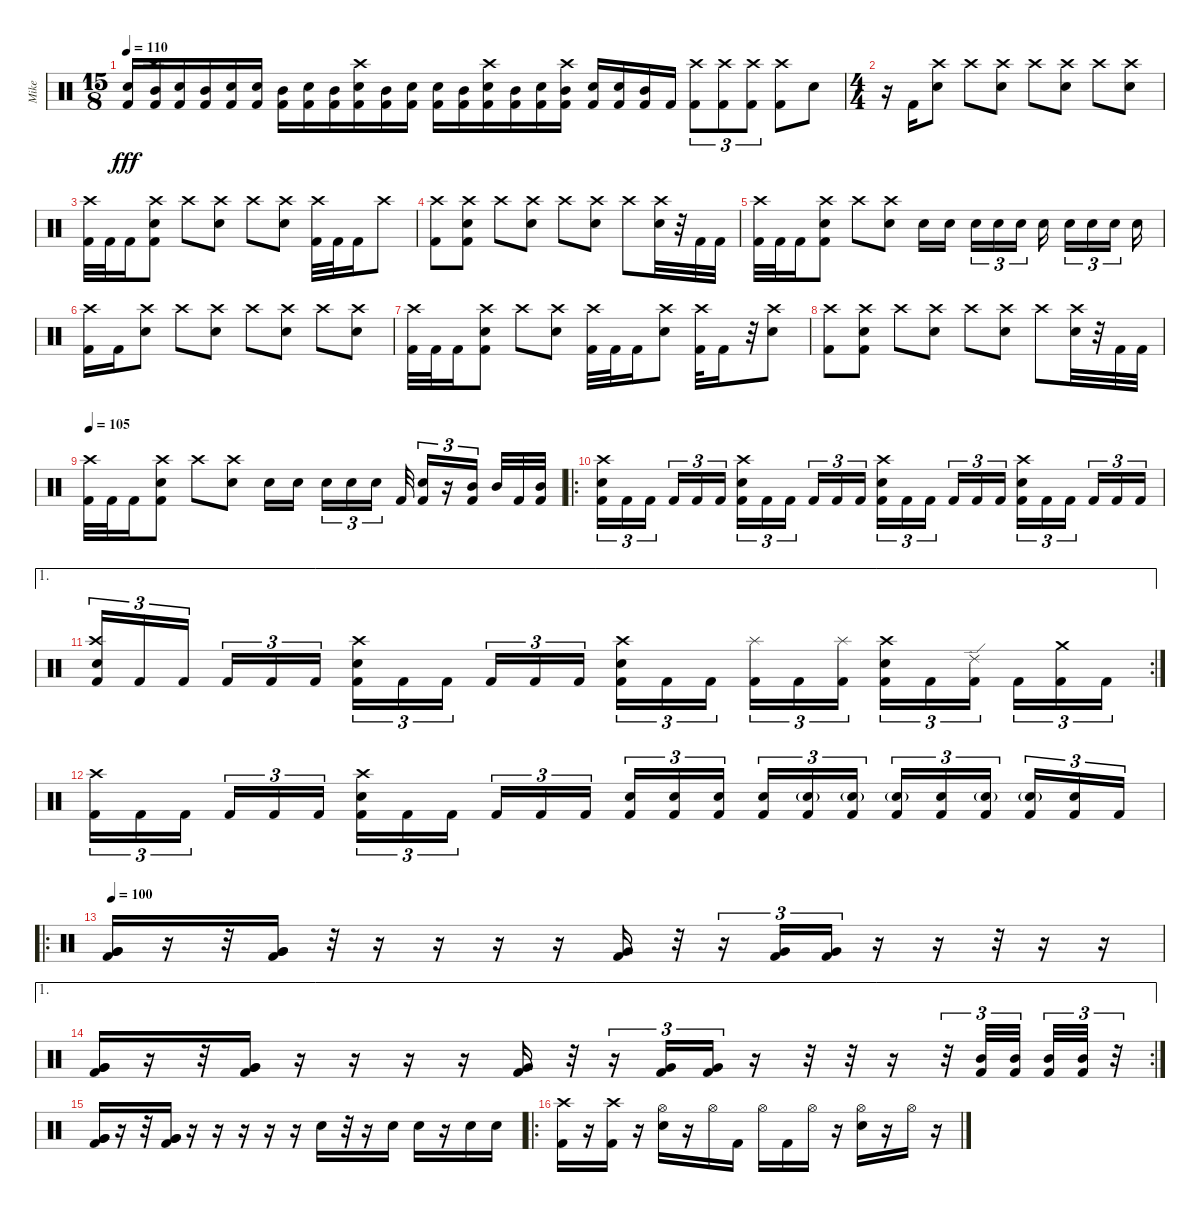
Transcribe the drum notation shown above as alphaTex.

\track ("Mike" "Mike") {instrument percussion}
\staff {score}
\articulation defaults
\ts (15 8)
\tempo 110
\clef neutral
\ks c
("Electric Snare (hit)" "Kick (hit) 2").16{dy fff} ("Crash high (hit)" "Mid Tom (hit)" "Kick (hit) 2").16 ("Electric Snare (hit)" "Kick (hit) 2").16 ("Mid Tom (hit)" "Kick (hit) 2").16 ("Electric Snare (hit)" "Kick (hit) 2").16 ("Electric Snare (hit)" "Kick (hit) 2").16 ("Mid Tom (hit)" "Kick (hit) 2").16 ("Electric Snare (hit)" "Kick (hit) 2").16 ("Mid Tom (hit)" "Kick (hit) 2").16 ("Crash high (hit)" "Electric Snare (hit)" "Kick (hit) 2").16 ("Mid Tom (hit)" "Kick (hit) 2").16 ("Electric Snare (hit)" "Kick (hit) 2").16 ("Electric Snare (hit)" "Kick (hit) 2").16 ("Mid Tom (hit)" "Kick (hit) 2").16 ("Crash high (hit)" "Electric Snare (hit)" "Kick (hit) 2").16 ("Mid Tom (hit)" "Kick (hit) 2").16 ("Electric Snare (hit)" "Kick (hit) 2").16 ("Crash high (hit)" "Mid Tom (hit)" "Kick (hit) 2").16 ("Electric Snare (hit)" "Kick (hit) 2").16 ("Electric Snare (hit)" "Kick (hit) 2").16 ("Mid Tom (hit)" "Kick (hit) 2").16 "Kick (hit) 2".16 ("Crash high (hit)" "Kick (hit) 2").8{tu (3 2)} ("Crash high (hit)" "Kick (hit) 2").8{tu (3 2)} ("Crash high (hit)" "Kick (hit) 2").8{tu (3 2)} ("Crash high (hit)" "Kick (hit) 2").8 "Electric Snare (hit)".8 |
\ts (4 4)
r.16 "Kick (hit) 2".16 ("Crash high (hit)" "Electric Snare (hit)").8 "Crash high (hit)".8 ("Crash high (hit)" "Electric Snare (hit)").8 "Crash high (hit)".8 ("Crash high (hit)" "Electric Snare (hit)").8 "Crash high (hit)".8 ("Crash high (hit)" "Electric Snare (hit)").8 |
("Crash high (hit)" "Kick (hit) 2").32 "Kick (hit) 2".32 "Kick (hit) 2".16 ("Crash high (hit)" "Electric Snare (hit)" "Kick (hit) 2").8 "Crash high (hit)".8 ("Crash high (hit)" "Electric Snare (hit)").8 "Crash high (hit)".8 ("Crash high (hit)" "Electric Snare (hit)").8 ("Crash high (hit)" "Kick (hit) 2").32 "Kick (hit) 2".32 "Kick (hit) 2".16 "Crash high (hit)".8 |
("Crash high (hit)" "Kick (hit) 2").8 ("Crash high (hit)" "Electric Snare (hit)" "Kick (hit) 2").8 "Crash high (hit)".8 ("Crash high (hit)" "Electric Snare (hit)").8 "Crash high (hit)".8 ("Crash high (hit)" "Electric Snare (hit)").8 "Crash high (hit)".8 ("Crash high (hit)" "Electric Snare (hit)").32 r.32 "Kick (hit) 2".32 "Kick (hit) 2".32 |
("Crash high (hit)" "Kick (hit) 2").32 "Kick (hit) 2".32 "Kick (hit) 2".16 ("Crash high (hit)" "Electric Snare (hit)" "Kick (hit) 2").8 "Crash high (hit)".8 ("Crash high (hit)" "Electric Snare (hit)").8 "Electric Snare (hit)".16 "Electric Snare (hit)".16{beam splitsecondary} "Electric Snare (hit)".16{tu (3 2)} "Electric Snare (hit)".16{tu (3 2)} "Electric Snare (hit)".16{tu (3 2)} "Electric Snare (hit)".16{beam splitsecondary} "Electric Snare (hit)".16{tu (3 2)} "Electric Snare (hit)".16{tu (3 2)} "Electric Snare (hit)".16{tu (3 2) beam splitsecondary} "Electric Snare (hit)".16 |
("Crash high (hit)" "Kick (hit) 2").16 "Kick (hit) 2".16 ("Crash high (hit)" "Electric Snare (hit)").8 "Crash high (hit)".8 ("Crash high (hit)" "Electric Snare (hit)").8 "Crash high (hit)".8 ("Crash high (hit)" "Electric Snare (hit)").8 "Crash high (hit)".8 ("Crash high (hit)" "Electric Snare (hit)").8 |
("Crash high (hit)" "Kick (hit) 2").32 "Kick (hit) 2".32 "Kick (hit) 2".16 ("Crash high (hit)" "Electric Snare (hit)" "Kick (hit) 2").8 "Crash high (hit)".8 ("Crash high (hit)" "Electric Snare (hit)").8 ("Crash high (hit)" "Kick (hit) 2").32 "Kick (hit) 2".32 "Kick (hit) 2".16 ("Crash high (hit)" "Electric Snare (hit)").8 ("Crash high (hit)" "Kick (hit) 2").32 "Kick (hit) 2".16 r.32 ("Crash high (hit)" "Electric Snare (hit)").8 |
("Crash high (hit)" "Kick (hit) 2").8 ("Crash high (hit)" "Electric Snare (hit)" "Kick (hit) 2").8 "Crash high (hit)".8 ("Crash high (hit)" "Electric Snare (hit)").8 "Crash high (hit)".8 ("Crash high (hit)" "Electric Snare (hit)").8 "Crash high (hit)".8 ("Crash high (hit)" "Electric Snare (hit)").32 r.32 "Kick (hit) 2".32 "Kick (hit) 2".32 |
\tempo 105
("Crash high (hit)" "Kick (hit) 2").32 "Kick (hit) 2".32 "Kick (hit) 2".16 ("Crash high (hit)" "Electric Snare (hit)" "Kick (hit) 2").8 "Crash high (hit)".8 ("Crash high (hit)" "Electric Snare (hit)").8 "Electric Snare (hit)".16 "Electric Snare (hit)".16{beam splitsecondary} "Electric Snare (hit)".16{tu (3 2)} "Electric Snare (hit)".16{tu (3 2)} "Electric Snare (hit)".16{tu (3 2)} "Kick (hit) 2".32 ("Electric Snare (hit)" "Kick (hit) 2").16{tu (3 2)} r.16{tu (3 2)} ("Mid Tom (hit)" "Kick (hit) 2").16{tu (3 2) beam splitsecondary} "Mid Tom (hit)".32 "Kick (hit) 2".32 ("Mid Tom (hit)" "Kick (hit) 2").32 |
\ro
("Crash high (hit)" "Electric Snare (hit)" "Kick (hit) 2").16{tu (3 2)} "Kick (hit) 2".16{tu (3 2)} "Kick (hit) 2".16{tu (3 2) beam splitsecondary} "Kick (hit) 2".16{tu (3 2)} "Kick (hit) 2".16{tu (3 2)} "Kick (hit) 2".16{tu (3 2)} ("Crash high (hit)" "Electric Snare (hit)" "Kick (hit) 2").16{tu (3 2)} "Kick (hit) 2".16{tu (3 2)} "Kick (hit) 2".16{tu (3 2) beam splitsecondary} "Kick (hit) 2".16{tu (3 2)} "Kick (hit) 2".16{tu (3 2)} "Kick (hit) 2".16{tu (3 2)} ("Crash high (hit)" "Electric Snare (hit)" "Kick (hit) 2").16{tu (3 2)} "Kick (hit) 2".16{tu (3 2)} "Kick (hit) 2".16{tu (3 2) beam splitsecondary} "Kick (hit) 2".16{tu (3 2)} "Kick (hit) 2".16{tu (3 2)} "Kick (hit) 2".16{tu (3 2)} ("Crash high (hit)" "Electric Snare (hit)" "Kick (hit) 2").16{tu (3 2)} "Kick (hit) 2".16{tu (3 2)} "Kick (hit) 2".16{tu (3 2) beam splitsecondary} "Kick (hit) 2".16{tu (3 2)} "Kick (hit) 2".16{tu (3 2)} "Kick (hit) 2".16{tu (3 2)} |
\ae 1
\rc 2
("Crash high (hit)" "Snare (hit)" "Kick (hit) 2").16{tu (3 2)} "Kick (hit) 2".16{tu (3 2)} "Kick (hit) 2".16{tu (3 2) beam splitsecondary} "Kick (hit) 2".16{tu (3 2)} "Kick (hit) 2".16{tu (3 2)} "Kick (hit) 2".16{tu (3 2)} ("Crash high (hit)" "Electric Snare (hit)" "Kick (hit) 2").16{tu (3 2)} "Kick (hit) 2".16{tu (3 2)} "Kick (hit) 2".16{tu (3 2) beam splitsecondary} "Kick (hit) 2".16{tu (3 2)} "Kick (hit) 2".16{tu (3 2)} "Kick (hit) 2".16{tu (3 2)} ("Crash high (hit)" "Electric Snare (hit)" "Kick (hit) 2").16{tu (3 2)} "Kick (hit) 2".16{tu (3 2)} "Kick (hit) 2".16{tu (3 2) beam splitsecondary} ("Splash (hit)" "Kick (hit) 2").16{tu (3 2)} "Kick (hit) 2".16{tu (3 2)} ("Splash (hit)" "Kick (hit) 2").16{tu (3 2)} ("Crash high (hit)" "Electric Snare (hit)" "Kick (hit) 2").16{tu (3 2)} "Kick (hit) 2".16{tu (3 2)} ("Ride (edge) 2" "Kick (hit) 2").16{tu (3 2) beam splitsecondary} "Kick (hit) 2".16{tu (3 2)} ("Crash medium (hit)" "Kick (hit) 2").16{tu (3 2)} "Kick (hit) 2".16{tu (3 2)} |
("Crash high (hit)" "Kick (hit) 2").16{tu (3 2)} "Kick (hit) 2".16{tu (3 2)} "Kick (hit) 2".16{tu (3 2) beam splitsecondary} "Kick (hit) 2".16{tu (3 2)} "Kick (hit) 2".16{tu (3 2)} "Kick (hit) 2".16{tu (3 2)} ("Crash high (hit)" "Electric Snare (hit)" "Kick (hit) 2").16{tu (3 2)} "Kick (hit) 2".16{tu (3 2)} "Kick (hit) 2".16{tu (3 2) beam splitsecondary} "Kick (hit) 2".16{tu (3 2)} "Kick (hit) 2".16{tu (3 2)} "Kick (hit) 2".16{tu (3 2)} ("Electric Snare (hit)" "Kick (hit) 2").16{tu (3 2)} ("Electric Snare (hit)" "Kick (hit) 2").16{tu (3 2)} ("Electric Snare (hit)" "Kick (hit) 2").16{tu (3 2) beam splitsecondary} ("Electric Snare (hit)" "Kick (hit) 2").16{tu (3 2)} ("Electric Snare (hit)"{g} "Kick (hit) 2").16{tu (3 2)} ("Electric Snare (hit)"{g} "Kick (hit) 2").16{tu (3 2)} ("Electric Snare (hit)"{g} "Kick (hit) 2").16{tu (3 2)} ("Electric Snare (hit)" "Kick (hit) 2").16{tu (3 2)} ("Electric Snare (hit)"{g} "Kick (hit) 2").16{tu (3 2) beam splitsecondary} ("Electric Snare (hit)"{g} "Kick (hit) 2").16{tu (3 2)} ("Electric Snare (hit)" "Kick (hit) 2").16{tu (3 2)} "Kick (hit) 2".16{tu (3 2)} |
\ro
\tempo 100
("Very Low Tom (hit)" "Very Low Tom (hit)" "Kick (hit) 2").16 r.16 r.32 ("Very Low Tom (hit)" "Very Low Tom (hit)" "Kick (hit) 2").16 r.32 r.16 r.16 r.16 r.16 ("Very Low Tom (hit)" "Kick (hit) 2").16 r.32 r.16{tu (3 2)} ("Very Low Tom (hit)" "Kick (hit) 2").16{tu (3 2)} ("Kick (hit) 2" "Very Low Tom (hit)").16{tu (3 2)} r.16 r.16 r.32 r.16 r.16 |
\ae 1
\rc 2
("Very Low Tom (hit)" "Very Low Tom (hit)" "Kick (hit) 2").16 r.16 r.32 ("Very Low Tom (hit)" "Very Low Tom (hit)" "Kick (hit) 2").16 r.16 r.16 r.16 r.16 ("Very Low Tom (hit)" "Kick (hit) 2").16 r.32 r.16{tu (3 2)} ("Very Low Tom (hit)" "Kick (hit) 2").16{tu (3 2)} ("Very Low Tom (hit)" "Kick (hit) 2").16{tu (3 2)} r.16 r.32 r.32 r.16 r.32{tu (3 2)} ("Mid Tom (hit)" "Kick (hit) 2").32{tu (3 2)} ("Mid Tom (hit)" "Kick (hit) 2").32{tu (3 2) beam splitsecondary} ("Mid Tom (hit)" "Kick (hit) 2").32{tu (3 2)} ("Mid Tom (hit)" "Kick (hit) 2").32{tu (3 2)} r.32{tu (3 2)} |
("Very Low Tom (hit)" "Very Low Tom (hit)" "Kick (hit) 2").16 r.16 r.32 ("Very Low Tom (hit)" "Very Low Tom (hit)" "Kick (hit) 2").16 r.16 r.16 r.16 r.16 r.16 "Electric Snare (hit)".16 r.32 r.16 "Electric Snare (hit)".16 "Electric Snare (hit)".16 r.16 "Electric Snare (hit)".16 "Electric Snare (hit)".16 |
\ro
("Crash high (hit)" "Kick (hit) 2").16 r.16 ("Crash high (hit)" "Kick (hit) 2").16 r.16 ("Hi-Hat (open)" "Electric Snare (hit)").16 r.16 "Hi-Hat (open)".16 "Kick (hit) 2".16 "Hi-Hat (open)".16 "Kick (hit) 2".16 "Hi-Hat (open)".16 r.16 ("Hi-Hat (open)" "Electric Snare (hit)").16 r.16 "Hi-Hat (open)".16 r.16
